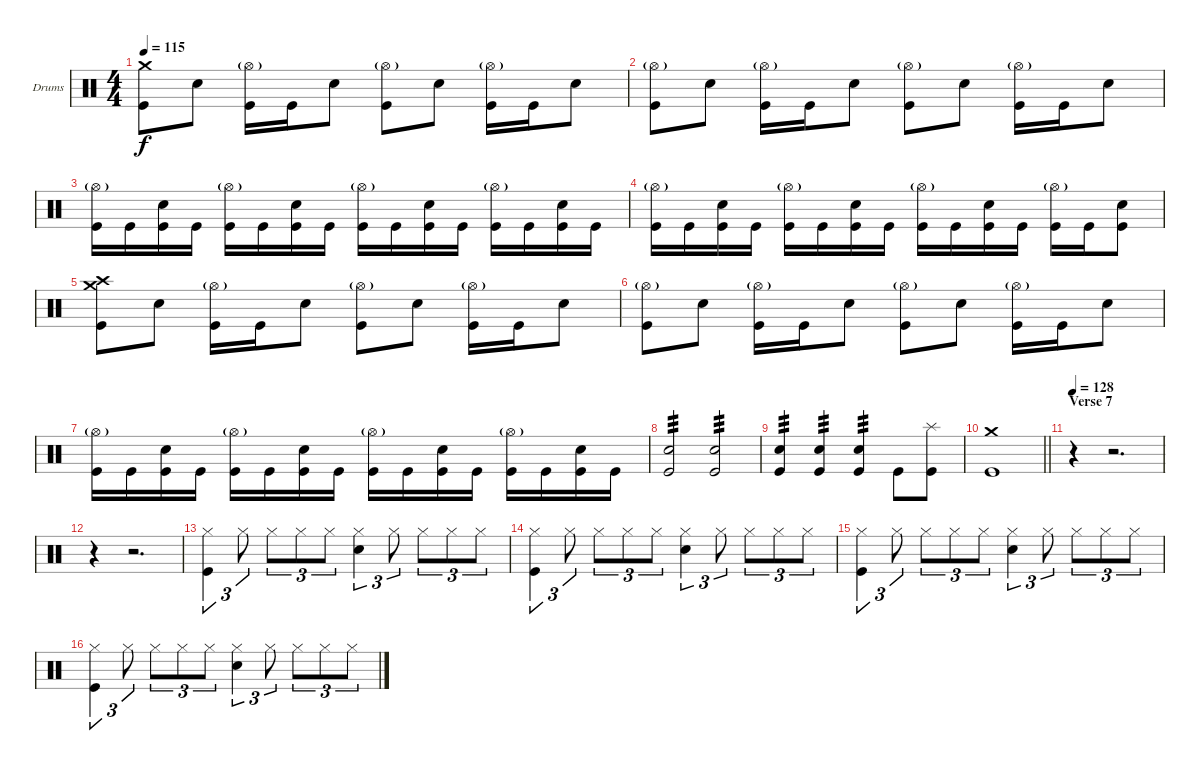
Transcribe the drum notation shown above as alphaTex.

\bracketExtendMode groupsimilarinstruments
\firstSystemTrackNameOrientation horizontal
\otherSystemsTrackNameOrientation horizontal
\track ("Drumkit" "Drums") {instrument percussion}
\staff {score}
\articulation defaults
\ts (4 4)
\tempo 115
\clef neutral
\ks c
("Crash medium (hit)" "Kick (hit)").8{dy f} "Snare (hit) 2".8 ("Hi-Hat (open)"{g} "Kick (hit)").16 "Kick (hit)".16 "Snare (hit) 2".8 ("Hi-Hat (open)"{g} "Kick (hit)").8 "Snare (hit) 2".8 ("Hi-Hat (open)"{g} "Kick (hit)").16 "Kick (hit)".16 "Snare (hit) 2".8 |
("Hi-Hat (open)"{g} "Kick (hit)").8 "Snare (hit) 2".8 ("Hi-Hat (open)"{g} "Kick (hit)").16 "Kick (hit)".16 "Snare (hit) 2".8 ("Hi-Hat (open)"{g} "Kick (hit)").8 "Snare (hit) 2".8 ("Hi-Hat (open)"{g} "Kick (hit)").16 "Kick (hit)".16 "Snare (hit) 2".8 |
("Hi-Hat (open)"{g} "Kick (hit)").16 "Kick (hit)".16 ("Snare (hit) 2" "Kick (hit)").16 "Kick (hit)".16 ("Hi-Hat (open)"{g} "Kick (hit)").16 "Kick (hit)".16 ("Snare (hit) 2" "Kick (hit)").16 "Kick (hit)".16 ("Hi-Hat (open)"{g} "Kick (hit)").16 "Kick (hit)".16 ("Snare (hit) 2" "Kick (hit)").16 "Kick (hit)".16 ("Hi-Hat (open)"{g} "Kick (hit)").16 "Kick (hit)".16 ("Snare (hit) 2" "Kick (hit)").16 "Kick (hit)".16 |
("Hi-Hat (open)"{g} "Kick (hit)").16 "Kick (hit)".16 ("Snare (hit) 2" "Kick (hit)").16 "Kick (hit)".16 ("Hi-Hat (open)"{g} "Kick (hit)").16 "Kick (hit)".16 ("Snare (hit) 2" "Kick (hit)").16 "Kick (hit)".16 ("Hi-Hat (open)"{g} "Kick (hit)").16 "Kick (hit)".16 ("Snare (hit) 2" "Kick (hit)").16 "Kick (hit)".16 ("Hi-Hat (open)"{g} "Kick (hit)").16 "Kick (hit)".16 ("Snare (hit) 2" "Kick (hit)").8 |
("Crash medium (hit)" "Crash high (hit)" "Kick (hit)").8 "Snare (hit) 2".8 ("Hi-Hat (open)"{g} "Kick (hit)").16 "Kick (hit)".16 "Snare (hit) 2".8 ("Hi-Hat (open)"{g} "Kick (hit)").8 "Snare (hit) 2".8 ("Hi-Hat (open)"{g} "Kick (hit)").16 "Kick (hit)".16 "Snare (hit) 2".8 |
("Hi-Hat (open)"{g} "Kick (hit)").8 "Snare (hit) 2".8 ("Hi-Hat (open)"{g} "Kick (hit)").16 "Kick (hit)".16 "Snare (hit) 2".8 ("Hi-Hat (open)"{g} "Kick (hit)").8 "Snare (hit) 2".8 ("Hi-Hat (open)"{g} "Kick (hit)").16 "Kick (hit)".16 "Snare (hit) 2".8 |
("Hi-Hat (open)"{g} "Kick (hit)").16 "Kick (hit)".16 ("Snare (hit) 2" "Kick (hit)").16 "Kick (hit)".16 ("Hi-Hat (open)"{g} "Kick (hit)").16 "Kick (hit)".16 ("Snare (hit) 2" "Kick (hit)").16 "Kick (hit)".16 ("Hi-Hat (open)"{g} "Kick (hit)").16 "Kick (hit)".16 ("Snare (hit) 2" "Kick (hit)").16 "Kick (hit)".16 ("Hi-Hat (open)"{g} "Kick (hit)").16 "Kick (hit)".16 ("Snare (hit) 2" "Kick (hit)").16 "Kick (hit)".16 |
("Snare (hit) 2" "Kick (hit)").2{tp 3} ("Snare (hit) 2" "Kick (hit)").2{tp 3} |
("Snare (hit) 2" "Kick (hit)").4{tp 3} ("Snare (hit) 2" "Kick (hit)").4{tp 3} ("Snare (hit) 2" "Kick (hit)").4{tp 3} "Kick (hit)".8 ("Splash (hit)" "Kick (hit)").8 |
\barLineRight lightlight
("Crash medium (hit)" "Kick (hit)").1 |
\section ("" "Verse 7")
\tempo 128
r.4 r.2{d} |
r.4 r.2{d} |
("Hi-Hat (closed)" "Kick (hit)").4{tu (3 2)} "Hi-Hat (closed)".8{tu (3 2)} "Hi-Hat (closed)".8{tu (3 2)} "Hi-Hat (closed)".8{tu (3 2)} "Hi-Hat (closed)".8{tu (3 2)} ("Hi-Hat (closed)" "Snare (hit) 2").4{tu (3 2)} "Hi-Hat (closed)".8{tu (3 2)} "Hi-Hat (closed)".8{tu (3 2)} "Hi-Hat (closed)".8{tu (3 2)} "Hi-Hat (closed)".8{tu (3 2)} |
("Hi-Hat (closed)" "Kick (hit)").4{tu (3 2)} "Hi-Hat (closed)".8{tu (3 2)} "Hi-Hat (closed)".8{tu (3 2)} "Hi-Hat (closed)".8{tu (3 2)} "Hi-Hat (closed)".8{tu (3 2)} ("Hi-Hat (closed)" "Snare (hit) 2").4{tu (3 2)} "Hi-Hat (closed)".8{tu (3 2)} "Hi-Hat (closed)".8{tu (3 2)} "Hi-Hat (closed)".8{tu (3 2)} "Hi-Hat (closed)".8{tu (3 2)} |
("Hi-Hat (closed)" "Kick (hit)").4{tu (3 2)} "Hi-Hat (closed)".8{tu (3 2)} "Hi-Hat (closed)".8{tu (3 2)} "Hi-Hat (closed)".8{tu (3 2)} "Hi-Hat (closed)".8{tu (3 2)} ("Hi-Hat (closed)" "Snare (hit) 2").4{tu (3 2)} "Hi-Hat (closed)".8{tu (3 2)} "Hi-Hat (closed)".8{tu (3 2)} "Hi-Hat (closed)".8{tu (3 2)} "Hi-Hat (closed)".8{tu (3 2)} |
("Hi-Hat (closed)" "Kick (hit)").4{tu (3 2)} "Hi-Hat (closed)".8{tu (3 2)} "Hi-Hat (closed)".8{tu (3 2)} "Hi-Hat (closed)".8{tu (3 2)} "Hi-Hat (closed)".8{tu (3 2)} ("Hi-Hat (closed)" "Snare (hit) 2").4{tu (3 2)} "Hi-Hat (closed)".8{tu (3 2)} "Hi-Hat (closed)".8{tu (3 2)} "Hi-Hat (closed)".8{tu (3 2)} "Hi-Hat (closed)".8{tu (3 2)}
